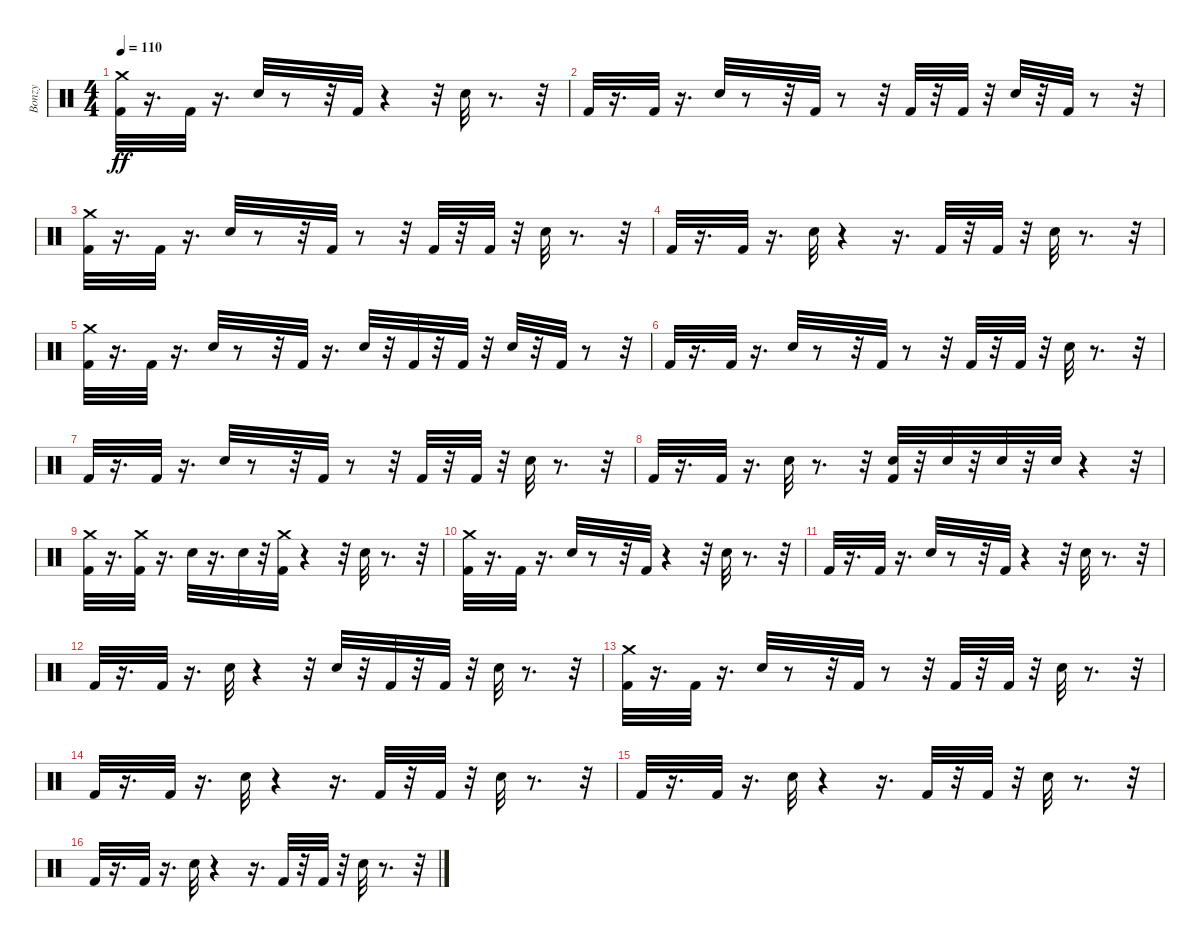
\track ("Bonzy" "Bonzy") {instrument percussion}
\staff {score}
\articulation defaults
\ts (4 4)
\tempo 110
\clef neutral
\ks c
("Crash medium (hit)" "Kick (hit) 2").32{dy ff} r.16{d} "Kick (hit) 2".32 r.16{d} "Electric Snare (hit)".32 r.8 r.32 "Kick (hit) 2".32 r.4 r.32 "Electric Snare (hit)".32 r.8{d} r.32 |
"Kick (hit) 2".32 r.16{d} "Kick (hit) 2".32 r.16{d} "Electric Snare (hit)".32 r.8 r.32 "Kick (hit) 2".32 r.8 r.32 "Kick (hit) 2".32 r.32 "Kick (hit) 2".32 r.32 "Electric Snare (hit)".32 r.32 "Kick (hit) 2".32 r.8 r.32 |
("Crash medium (hit)" "Kick (hit) 2").32 r.16{d} "Kick (hit) 2".32 r.16{d} "Electric Snare (hit)".32 r.8 r.32 "Kick (hit) 2".32 r.8 r.32 "Kick (hit) 2".32 r.32 "Kick (hit) 2".32 r.32 "Electric Snare (hit)".32 r.8{d} r.32 |
"Kick (hit) 2".32 r.16{d} "Kick (hit) 2".32 r.16{d} "Electric Snare (hit)".32 r.4 r.16{d} "Kick (hit) 2".32 r.32 "Kick (hit) 2".32 r.32 "Electric Snare (hit)".32 r.8{d} r.32 |
("Crash medium (hit)" "Kick (hit) 2").32 r.16{d} "Kick (hit) 2".32 r.16{d} "Electric Snare (hit)".32 r.8 r.32 "Kick (hit) 2".32 r.16{d} "Electric Snare (hit)".32 r.32 "Kick (hit) 2".32 r.32 "Kick (hit) 2".32 r.32 "Electric Snare (hit)".32 r.32 "Kick (hit) 2".32 r.8 r.32 |
"Kick (hit) 2".32 r.16{d} "Kick (hit) 2".32 r.16{d} "Electric Snare (hit)".32 r.8 r.32 "Kick (hit) 2".32 r.8 r.32 "Kick (hit) 2".32 r.32 "Kick (hit) 2".32 r.32 "Electric Snare (hit)".32 r.8{d} r.32 |
"Kick (hit) 2".32 r.16{d} "Kick (hit) 2".32 r.16{d} "Electric Snare (hit)".32 r.8 r.32 "Kick (hit) 2".32 r.8 r.32 "Kick (hit) 2".32 r.32 "Kick (hit) 2".32 r.32 "Electric Snare (hit)".32 r.8{d} r.32 |
"Kick (hit) 2".32 r.16{d} "Kick (hit) 2".32 r.16{d} "Electric Snare (hit)".32 r.8{d} r.32 ("Kick (hit) 2" "Electric Snare (hit)").32 r.32 "Electric Snare (hit)".32 r.32 "Electric Snare (hit)".32 r.32 "Electric Snare (hit)".32 r.4 r.32 |
("Kick (hit) 2" "Crash medium (hit)").32 r.16{d} ("Crash medium (hit)" "Kick (hit) 2").32 r.16{d} "Electric Snare (hit)".32 r.16{d} "Electric Snare (hit)".32 r.32 ("Kick (hit) 2" "Crash medium (hit)").32 r.4 r.32 "Electric Snare (hit)".32 r.8{d} r.32 |
("Crash medium (hit)" "Kick (hit) 2").32 r.16{d} "Kick (hit) 2".32 r.16{d} "Electric Snare (hit)".32 r.8 r.32 "Kick (hit) 2".32 r.4 r.32 "Electric Snare (hit)".32 r.8{d} r.32 |
"Kick (hit) 2".32 r.16{d} "Kick (hit) 2".32 r.16{d} "Electric Snare (hit)".32 r.8 r.32 "Kick (hit) 2".32 r.4 r.32 "Electric Snare (hit)".32 r.8{d} r.32 |
"Kick (hit) 2".32 r.16{d} "Kick (hit) 2".32 r.16{d} "Electric Snare (hit)".32 r.4 r.32 "Electric Snare (hit)".32 r.32 "Kick (hit) 2".32 r.32 "Kick (hit) 2".32 r.32 "Electric Snare (hit)".32 r.8{d} r.32 |
("Kick (hit) 2" "Crash medium (hit)").32 r.16{d} "Kick (hit) 2".32 r.16{d} "Electric Snare (hit)".32 r.8 r.32 "Kick (hit) 2".32 r.8 r.32 "Kick (hit) 2".32 r.32 "Kick (hit) 2".32 r.32 "Electric Snare (hit)".32 r.8{d} r.32 |
"Kick (hit) 2".32 r.16{d} "Kick (hit) 2".32 r.16{d} "Electric Snare (hit)".32 r.4 r.16{d} "Kick (hit) 2".32 r.32 "Kick (hit) 2".32 r.32 "Electric Snare (hit)".32 r.8{d} r.32 |
"Kick (hit) 2".32 r.16{d} "Kick (hit) 2".32 r.16{d} "Electric Snare (hit)".32 r.4 r.16{d} "Kick (hit) 2".32 r.32 "Kick (hit) 2".32 r.32 "Electric Snare (hit)".32 r.8{d} r.32 |
"Kick (hit) 2".32 r.16{d} "Kick (hit) 2".32 r.16{d} "Electric Snare (hit)".32 r.4 r.16{d} "Kick (hit) 2".32 r.32 "Kick (hit) 2".32 r.32 "Electric Snare (hit)".32 r.8{d} r.32
